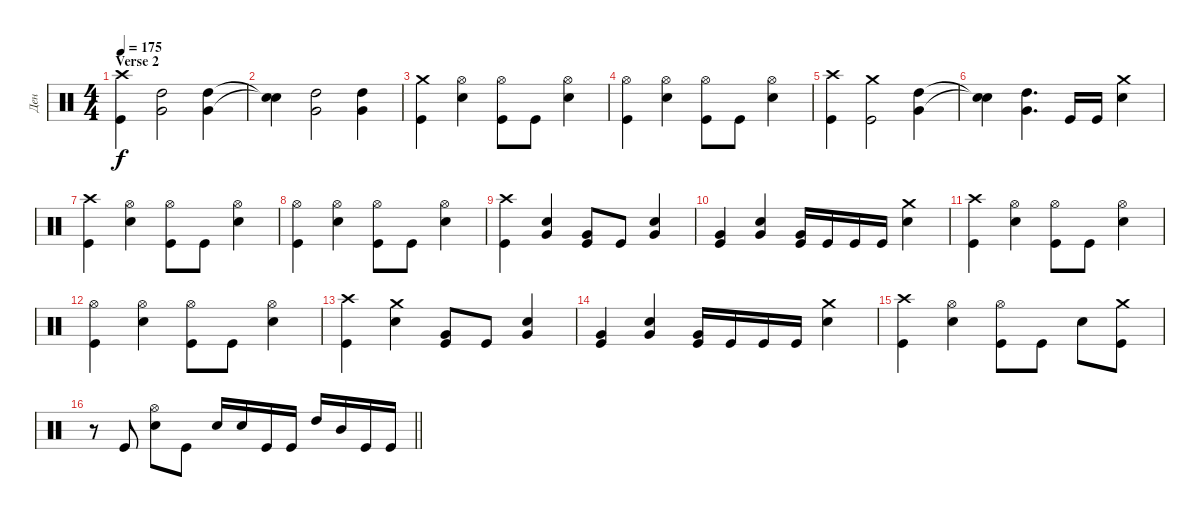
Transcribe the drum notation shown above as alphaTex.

\track ("Ден" "Ден") {instrument percussion}
\staff {score}
\articulation defaults
\ts (4 4)
\section ("" "Verse 2")
\tempo 175
\clef neutral
\ks c
("Crash high (hit)" "Kick (hit)").4{dy f} ("High Tom (hit)" "Very Low Tom (hit)").2 ("High Tom (hit)" "Very Low Tom (hit)").4 |
("Snare (hit)"{t} "Snare (hit)"{t}).4 ("High Tom (hit)" "Very Low Tom (hit)").2 ("High Tom (hit)" "Very Low Tom (hit)").4 |
\ks aminor
("Crash medium (hit)" "Kick (hit)").4 ("Hi-Hat (open)" "Snare (hit) 2").4 ("Hi-Hat (open)" "Kick (hit)").8 "Kick (hit)".8 ("Hi-Hat (open)" "Snare (hit) 2").4 |
("Hi-Hat (open)" "Kick (hit)").4 ("Hi-Hat (open)" "Snare (hit) 2").4 ("Hi-Hat (open)" "Kick (hit)").8 "Kick (hit)".8 ("Hi-Hat (open)" "Snare (hit) 2").4 |
\ks c
("Crash high (hit)" "Kick (hit)").4 ("Crash medium (hit)" "Kick (hit)").2 ("High Tom (hit)" "Very Low Tom (hit)").4 |
("Snare (hit)"{t} "Snare (hit)"{t}).4 ("High Tom (hit)" "Very Low Tom (hit)").4{d} "Kick (hit)".16 "Kick (hit)".16 ("Crash medium (hit)" "Snare (hit) 2").4 |
("Crash high (hit)" "Kick (hit)").4 ("Hi-Hat (open)" "Snare (hit) 2").4 ("Hi-Hat (open)" "Kick (hit)").8 "Kick (hit)".8 ("Hi-Hat (open)" "Snare (hit) 2").4 |
("Hi-Hat (open)" "Kick (hit)").4 ("Hi-Hat (open)" "Snare (hit) 2").4 ("Hi-Hat (open)" "Kick (hit)").8 "Kick (hit)".8 ("Hi-Hat (open)" "Snare (hit) 2").4 |
("Crash high (hit)" "Kick (hit)").4 ("Snare (hit) 2" "Very Low Tom (hit)").4 ("Very Low Tom (hit)" "Kick (hit)").8 "Kick (hit)".8 ("Snare (hit) 2" "Very Low Tom (hit)").4 |
("Very Low Tom (hit)" "Kick (hit)").4 ("Snare (hit) 2" "Very Low Tom (hit)").4 ("Very Low Tom (hit)" "Kick (hit)").16 "Kick (hit)".16 "Kick (hit)".16 "Kick (hit)".16 ("Crash medium (hit)" "Snare (hit) 2").4 |
("Crash high (hit)" "Kick (hit)").4 ("Hi-Hat (open)" "Snare (hit) 2").4 ("Hi-Hat (open)" "Kick (hit)").8 "Kick (hit)".8 ("Hi-Hat (open)" "Snare (hit) 2").4 |
("Hi-Hat (open)" "Kick (hit)").4 ("Hi-Hat (open)" "Snare (hit) 2").4 ("Hi-Hat (open)" "Kick (hit)").8 "Kick (hit)".8 ("Hi-Hat (open)" "Snare (hit) 2").4 |
("Crash high (hit)" "Kick (hit)").4 ("Crash medium (hit)" "Snare (hit) 2").4 ("Very Low Tom (hit)" "Kick (hit)").8 "Kick (hit)".8 ("Snare (hit) 2" "Very Low Tom (hit)").4 |
("Very Low Tom (hit)" "Kick (hit)").4 ("Snare (hit) 2" "Very Low Tom (hit)").4 ("Very Low Tom (hit)" "Kick (hit)").16 "Kick (hit)".16 "Kick (hit)".16 "Kick (hit)".16 ("Crash medium (hit)" "Snare (hit) 2").4 |
("Crash high (hit)" "Kick (hit)").4 ("Hi-Hat (open)" "Snare (hit) 2").4 ("Hi-Hat (open)" "Kick (hit)").8 "Kick (hit)".8 "Snare (hit) 2".8 ("Crash medium (hit)" "Kick (hit)").8 |
\barLineRight lightlight
r.8 "Kick (hit)".8 ("Hi-Hat (open)" "Snare (hit) 2").8 "Kick (hit)".8 "Snare (hit) 2".16 "Snare (hit) 2".16 "Kick (hit)".16 "Kick (hit)".16 "High Tom (hit)".16 "Mid Tom (hit)".16 "Kick (hit)".16 "Kick (hit)".16
